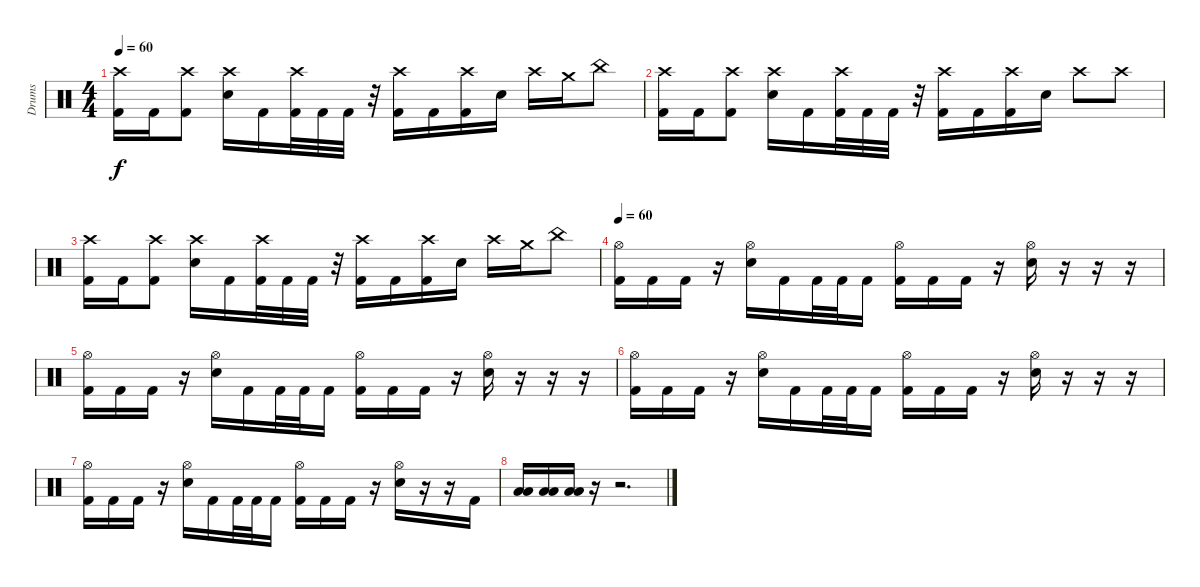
\track ("Drums" "Drums") {instrument percussion}
\staff {score}
\articulation defaults
\ts (4 4)
\tempo 60
\clef neutral
\ks c
("Crash high (hit)" "Kick (hit) 2").16{dy f volume 16} "Kick (hit) 2".16 ("Crash high (hit)" "Kick (hit) 2").8 ("Crash high (hit)" "Snare (hit) 2").16 "Kick (hit) 2".16 ("Crash high (hit)" "Kick (hit) 2").32 "Kick (hit) 2".32 "Kick (hit) 2".32 r.32 ("Crash high (hit)" "Kick (hit) 2").16 "Kick (hit) 2".16 ("Crash high (hit)" "Kick (hit) 2").16 "Snare (hit) 2".16 "Crash high (hit)".16 "Crash medium (hit)".16 "China (hit)".8 |
("Crash high (hit)" "Kick (hit) 2").16{volume 16} "Kick (hit) 2".16 ("Crash high (hit)" "Kick (hit) 2").8 ("Crash high (hit)" "Snare (hit) 2").16 "Kick (hit) 2".16 ("Crash high (hit)" "Kick (hit) 2").32 "Kick (hit) 2".32 "Kick (hit) 2".32 r.32 ("Crash high (hit)" "Kick (hit) 2").16 "Kick (hit) 2".16 ("Crash high (hit)" "Kick (hit) 2").16 "Snare (hit) 2".16 "Crash high (hit)".8 "Crash high (hit)".8 |
("Crash high (hit)" "Kick (hit) 2").16{volume 16} "Kick (hit) 2".16 ("Crash high (hit)" "Kick (hit) 2").8 ("Crash high (hit)" "Snare (hit) 2").16 "Kick (hit) 2".16 ("Crash high (hit)" "Kick (hit) 2").32 "Kick (hit) 2".32 "Kick (hit) 2".32 r.32 ("Crash high (hit)" "Kick (hit) 2").16 "Kick (hit) 2".16 ("Crash high (hit)" "Kick (hit) 2").16 "Snare (hit) 2".16 "Crash high (hit)".16 "Crash medium (hit)".16 "China (hit)".8 |
\tempo 60
("Hi-Hat (open)" "Kick (hit) 2").16 "Kick (hit) 2".16 "Kick (hit) 2".16 r.16 ("Hi-Hat (open)" "Snare (hit) 2").16 "Kick (hit) 2".16 "Kick (hit) 2".32 "Kick (hit) 2".32 "Kick (hit) 2".16 ("Hi-Hat (open)" "Kick (hit) 2").16 "Kick (hit) 2".16 "Kick (hit) 2".16 r.16 ("Hi-Hat (open)" "Snare (hit) 2").16 r.16 r.16 r.16 |
("Hi-Hat (open)" "Kick (hit) 2").16 "Kick (hit) 2".16 "Kick (hit) 2".16 r.16 ("Hi-Hat (open)" "Snare (hit) 2").16 "Kick (hit) 2".16 "Kick (hit) 2".32 "Kick (hit) 2".32 "Kick (hit) 2".16 ("Hi-Hat (open)" "Kick (hit) 2").16 "Kick (hit) 2".16 "Kick (hit) 2".16 r.16 ("Hi-Hat (open)" "Snare (hit) 2").16 r.16 r.16 r.16 |
("Hi-Hat (open)" "Kick (hit) 2").16 "Kick (hit) 2".16 "Kick (hit) 2".16 r.16 ("Hi-Hat (open)" "Snare (hit) 2").16 "Kick (hit) 2".16 "Kick (hit) 2".32 "Kick (hit) 2".32 "Kick (hit) 2".16 ("Hi-Hat (open)" "Kick (hit) 2").16 "Kick (hit) 2".16 "Kick (hit) 2".16 r.16 ("Hi-Hat (open)" "Snare (hit) 2").16 r.16 r.16 r.16 |
("Hi-Hat (open)" "Kick (hit) 2").16 "Kick (hit) 2".16 "Kick (hit) 2".16 r.16 ("Hi-Hat (open)" "Snare (hit) 2").16 "Kick (hit) 2".16 "Kick (hit) 2".32 "Kick (hit) 2".32 "Kick (hit) 2".16 ("Hi-Hat (open)" "Kick (hit) 2").16 "Kick (hit) 2".16 "Kick (hit) 2".16 r.16 ("Hi-Hat (open)" "Snare (hit) 2").16 r.16 r.16 "Kick (hit) 2".16 |
("Low Tom (hit)" "Low Floor Tom (hit)").16 ("Low Tom (hit)" "Low Floor Tom (hit)").16 ("Low Tom (hit)" "Low Floor Tom (hit)").16 r.16 r.2{d}
